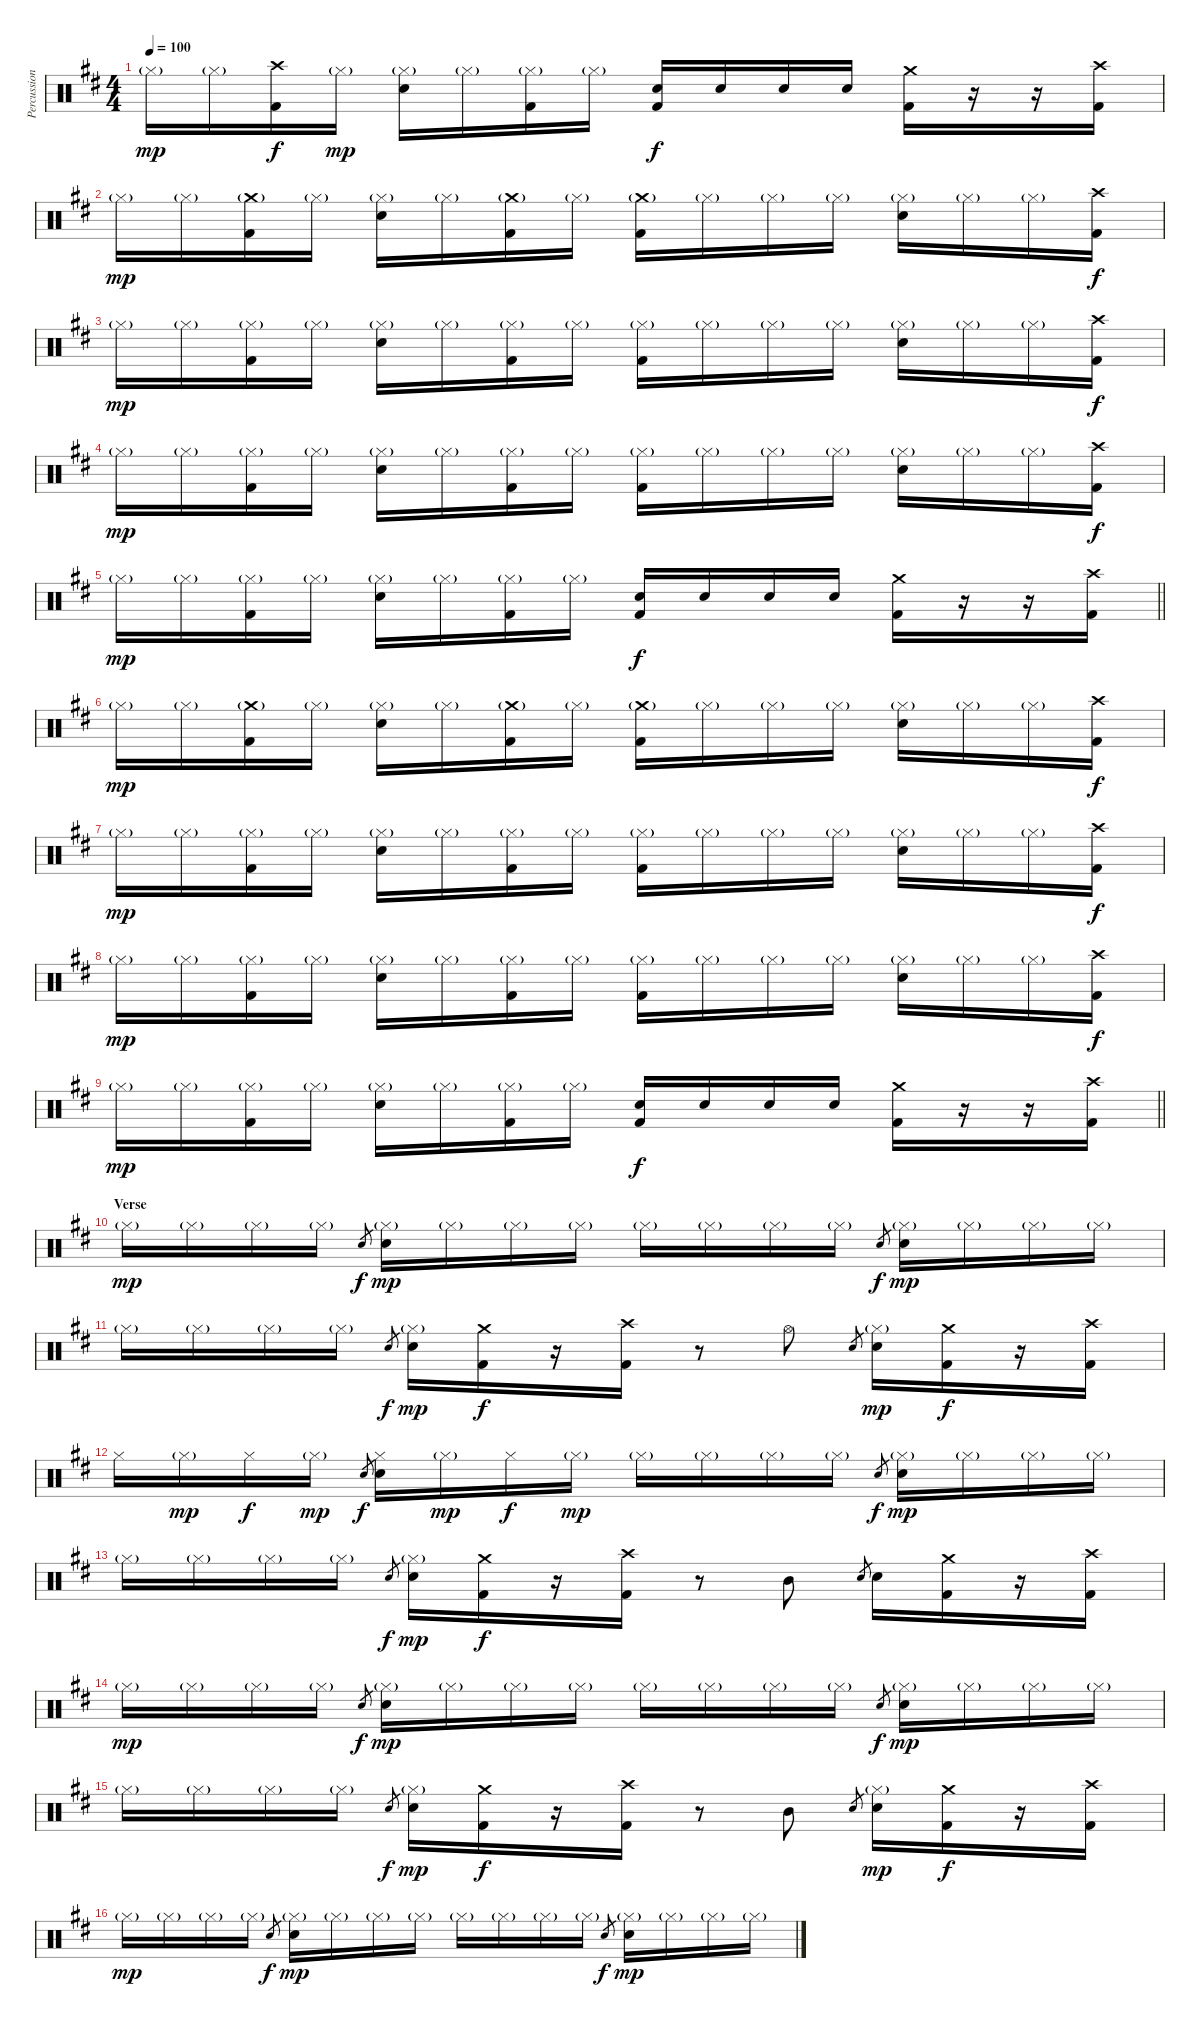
\track ("Percussion" "Percussion") {instrument percussion}
\staff {score}
\articulation defaults
\ts (4 4)
\tempo 100
\clef neutral
\ks bminor "Hi-Hat (closed)"{g}.16{dy mp} "Hi-Hat (closed)"{g}.16
("Crash high (hit)" "Kick (hit) 2").16{dy f} "Hi-Hat (closed)"{g}.16{dy mp} ("Hi-Hat (closed)"{g} "Snare (hit) 2").16 "Hi-Hat (closed)"{g}.16 ("Hi-Hat (closed)"{g} "Kick (hit) 2").16 "Hi-Hat (closed)"{g}.16 ("Snare (hit) 2" "Kick (hit) 2").16{dy f} "Snare (hit) 2".16 "Snare (hit) 2".16 "Snare (hit) 2".16 ("Crash medium (hit)" "Kick (hit) 2").16 r.16 r.16 ("Crash high (hit)" "Kick (hit) 2").16 |
"Hi-Hat (closed)"{g}.16{dy mp} "Hi-Hat (closed)"{g}.16 ("Crash medium (hit)"{g} "Kick (hit) 2").16 "Hi-Hat (closed)"{g}.16 ("Hi-Hat (closed)"{g} "Snare (hit) 2").16 "Hi-Hat (closed)"{g}.16 ("Crash medium (hit)"{g} "Kick (hit) 2").16 "Hi-Hat (closed)"{g}.16 ("Crash medium (hit)"{g} "Kick (hit) 2").16 "Hi-Hat (closed)"{g}.16 "Hi-Hat (closed)"{g}.16 "Hi-Hat (closed)"{g}.16 ("Hi-Hat (closed)"{g} "Snare (hit) 2").16 "Hi-Hat (closed)"{g}.16 "Hi-Hat (closed)"{g}.16 ("Crash high (hit)" "Kick (hit) 2").16{dy f} |
"Hi-Hat (closed)"{g}.16{dy mp} "Hi-Hat (closed)"{g}.16 ("Hi-Hat (closed)"{g} "Kick (hit) 2").16 "Hi-Hat (closed)"{g}.16 ("Hi-Hat (closed)"{g} "Snare (hit) 2").16 "Hi-Hat (closed)"{g}.16 ("Hi-Hat (closed)"{g} "Kick (hit) 2").16 "Hi-Hat (closed)"{g}.16 ("Hi-Hat (closed)"{g} "Kick (hit) 2").16 "Hi-Hat (closed)"{g}.16 "Hi-Hat (closed)"{g}.16 "Hi-Hat (closed)"{g}.16 ("Hi-Hat (closed)"{g} "Snare (hit) 2").16 "Hi-Hat (closed)"{g}.16 "Hi-Hat (closed)"{g}.16 ("Crash high (hit)" "Kick (hit) 2").16{dy f} |
"Hi-Hat (closed)"{g}.16{dy mp} "Hi-Hat (closed)"{g}.16 ("Hi-Hat (closed)"{g} "Kick (hit) 2").16 "Hi-Hat (closed)"{g}.16 ("Hi-Hat (closed)"{g} "Snare (hit) 2").16 "Hi-Hat (closed)"{g}.16 ("Hi-Hat (closed)"{g} "Kick (hit) 2").16 "Hi-Hat (closed)"{g}.16 ("Hi-Hat (closed)"{g} "Kick (hit) 2").16 "Hi-Hat (closed)"{g}.16 "Hi-Hat (closed)"{g}.16 "Hi-Hat (closed)"{g}.16 ("Hi-Hat (closed)"{g} "Snare (hit) 2").16 "Hi-Hat (closed)"{g}.16 "Hi-Hat (closed)"{g}.16 ("Crash high (hit)" "Kick (hit) 2").16{dy f} |
\barLineRight lightlight "Hi-Hat (closed)"{g}.16{dy mp} "Hi-Hat (closed)"{g}.16
("Hi-Hat (closed)"{g} "Kick (hit) 2").16 "Hi-Hat (closed)"{g}.16 ("Hi-Hat (closed)"{g} "Snare (hit) 2").16 "Hi-Hat (closed)"{g}.16 ("Hi-Hat (closed)"{g} "Kick (hit) 2").16 "Hi-Hat (closed)"{g}.16 ("Snare (hit) 2" "Kick (hit) 2").16{dy f} "Snare (hit) 2".16 "Snare (hit) 2".16 "Snare (hit) 2".16 ("Crash medium (hit)" "Kick (hit) 2").16 r.16 r.16 ("Crash high (hit)" "Kick (hit) 2").16 |
"Hi-Hat (closed)"{g}.16{dy mp} "Hi-Hat (closed)"{g}.16 ("Crash medium (hit)"{g} "Kick (hit) 2").16 "Hi-Hat (closed)"{g}.16 ("Hi-Hat (closed)"{g} "Snare (hit) 2").16 "Hi-Hat (closed)"{g}.16 ("Crash medium (hit)"{g} "Kick (hit) 2").16 "Hi-Hat (closed)"{g}.16 ("Crash medium (hit)"{g} "Kick (hit) 2").16 "Hi-Hat (closed)"{g}.16 "Hi-Hat (closed)"{g}.16 "Hi-Hat (closed)"{g}.16 ("Hi-Hat (closed)"{g} "Snare (hit) 2").16 "Hi-Hat (closed)"{g}.16 "Hi-Hat (closed)"{g}.16 ("Crash high (hit)" "Kick (hit) 2").16{dy f} |
"Hi-Hat (closed)"{g}.16{dy mp} "Hi-Hat (closed)"{g}.16 ("Hi-Hat (closed)"{g} "Kick (hit) 2").16 "Hi-Hat (closed)"{g}.16 ("Hi-Hat (closed)"{g} "Snare (hit) 2").16 "Hi-Hat (closed)"{g}.16 ("Hi-Hat (closed)"{g} "Kick (hit) 2").16 "Hi-Hat (closed)"{g}.16 ("Hi-Hat (closed)"{g} "Kick (hit) 2").16 "Hi-Hat (closed)"{g}.16 "Hi-Hat (closed)"{g}.16 "Hi-Hat (closed)"{g}.16 ("Hi-Hat (closed)"{g} "Snare (hit) 2").16 "Hi-Hat (closed)"{g}.16 "Hi-Hat (closed)"{g}.16 ("Crash high (hit)" "Kick (hit) 2").16{dy f} |
"Hi-Hat (closed)"{g}.16{dy mp} "Hi-Hat (closed)"{g}.16 ("Hi-Hat (closed)"{g} "Kick (hit) 2").16 "Hi-Hat (closed)"{g}.16 ("Hi-Hat (closed)"{g} "Snare (hit) 2").16 "Hi-Hat (closed)"{g}.16 ("Hi-Hat (closed)"{g} "Kick (hit) 2").16 "Hi-Hat (closed)"{g}.16 ("Hi-Hat (closed)"{g} "Kick (hit) 2").16 "Hi-Hat (closed)"{g}.16 "Hi-Hat (closed)"{g}.16 "Hi-Hat (closed)"{g}.16 ("Hi-Hat (closed)"{g} "Snare (hit) 2").16 "Hi-Hat (closed)"{g}.16 "Hi-Hat (closed)"{g}.16 ("Crash high (hit)" "Kick (hit) 2").16{dy f} |
\barLineRight lightlight "Hi-Hat (closed)"{g}.16{dy mp} "Hi-Hat (closed)"{g}.16
("Hi-Hat (closed)"{g} "Kick (hit) 2").16 "Hi-Hat (closed)"{g}.16 ("Hi-Hat (closed)"{g} "Snare (hit) 2").16 "Hi-Hat (closed)"{g}.16 ("Hi-Hat (closed)"{g} "Kick (hit) 2").16 "Hi-Hat (closed)"{g}.16 ("Snare (hit) 2" "Kick (hit) 2").16{dy f} "Snare (hit) 2".16 "Snare (hit) 2".16 "Snare (hit) 2".16 ("Crash medium (hit)" "Kick (hit) 2").16 r.16 r.16 ("Crash high (hit)" "Kick (hit) 2").16 |
\section ("" "Verse")
"Hi-Hat (closed)"{g}.16{dy mp} "Hi-Hat (closed)"{g}.16 "Hi-Hat (closed)"{g}.16 "Hi-Hat (closed)"{g}.16 "Snare (hit) 2"{x}.8{gr dy f} ("Hi-Hat (closed)"{g} "Snare (hit) 2").16{dy mp} "Hi-Hat (closed)"{g}.16 "Hi-Hat (closed)"{g}.16 "Hi-Hat (closed)"{g}.16 "Hi-Hat (closed)"{g}.16 "Hi-Hat (closed)"{g}.16 "Hi-Hat (closed)"{g}.16 "Hi-Hat (closed)"{g}.16 "Snare (hit) 2".8{gr dy f} ("Hi-Hat (closed)"{g} "Snare (hit) 2").16{dy mp} "Hi-Hat (closed)"{g}.16 "Hi-Hat (closed)"{g}.16 "Hi-Hat (closed)"{g}.16 |
"Hi-Hat (closed)"{g}.16 "Hi-Hat (closed)"{g}.16 "Hi-Hat (closed)"{g}.16 "Hi-Hat (closed)"{g}.16 "Snare (hit) 2"{x}.8{gr dy f} ("Hi-Hat (closed)"{g} "Snare (hit) 2").16{dy mp} ("Crash medium (hit)" "Kick (hit) 2").16{dy f} r.16 ("Crash high (hit)" "Kick (hit) 2").16 r.8 "Hi-Hat (open)".8 "Snare (hit) 2".8{gr} ("Hi-Hat (closed)"{g} "Snare (hit) 2").16{dy mp} ("Crash medium (hit)" "Kick (hit) 2").16{dy f} r.16 ("Crash high (hit)" "Kick (hit) 2").16 |
"Hi-Hat (closed)".16 "Hi-Hat (closed)"{g}.16{dy mp} "Hi-Hat (closed)".16{dy f} "Hi-Hat (closed)"{g}.16{dy mp} "Snare (hit) 2"{x}.8{gr dy f} ("Hi-Hat (closed)" "Snare (hit) 2").16 "Hi-Hat (closed)"{g}.16{dy mp} "Hi-Hat (closed)".16{dy f} "Hi-Hat (closed)"{g}.16{dy mp} "Hi-Hat (closed)"{g}.16 "Hi-Hat (closed)"{g}.16 "Hi-Hat (closed)"{g}.16 "Hi-Hat (closed)"{g}.16 "Snare (hit) 2".8{gr dy f} ("Hi-Hat (closed)"{g} "Snare (hit) 2").16{dy mp} "Hi-Hat (closed)"{g}.16 "Hi-Hat (closed)"{g}.16 "Hi-Hat (closed)"{g}.16 |
"Hi-Hat (closed)"{g}.16 "Hi-Hat (closed)"{g}.16 "Hi-Hat (closed)"{g}.16 "Hi-Hat (closed)"{g}.16 "Snare (hit) 2"{x}.8{gr dy f} ("Hi-Hat (closed)"{g} "Snare (hit) 2").16{dy mp} ("Crash medium (hit)" "Kick (hit) 2").16{dy f} r.16 ("Crash high (hit)" "Kick (hit) 2").16 r.8 "Mid Tom (hit)".8 "Snare (hit) 2".8{gr} "Snare (hit) 2".16 ("Crash medium (hit)" "Kick (hit) 2").16 r.16 ("Crash high (hit)" "Kick (hit) 2").16 |
"Hi-Hat (closed)"{g}.16{dy mp} "Hi-Hat (closed)"{g}.16 "Hi-Hat (closed)"{g}.16 "Hi-Hat (closed)"{g}.16 "Snare (hit) 2"{x}.8{gr dy f} ("Hi-Hat (closed)"{g} "Snare (hit) 2").16{dy mp} "Hi-Hat (closed)"{g}.16 "Hi-Hat (closed)"{g}.16 "Hi-Hat (closed)"{g}.16 "Hi-Hat (closed)"{g}.16 "Hi-Hat (closed)"{g}.16 "Hi-Hat (closed)"{g}.16 "Hi-Hat (closed)"{g}.16 "Snare (hit) 2".8{gr dy f} ("Hi-Hat (closed)"{g} "Snare (hit) 2").16{dy mp} "Hi-Hat (closed)"{g}.16 "Hi-Hat (closed)"{g}.16 "Hi-Hat (closed)"{g}.16 |
"Hi-Hat (closed)"{g}.16 "Hi-Hat (closed)"{g}.16 "Hi-Hat (closed)"{g}.16 "Hi-Hat (closed)"{g}.16 "Snare (hit) 2"{x}.8{gr dy f} ("Hi-Hat (closed)"{g} "Snare (hit) 2").16{dy mp} ("Crash medium (hit)" "Kick (hit) 2").16{dy f} r.16 ("Crash high (hit)" "Kick (hit) 2").16 r.8 "Mid Tom (hit)".8 "Snare (hit) 2".8{gr} ("Hi-Hat (closed)"{g} "Snare (hit) 2").16{dy mp} ("Crash medium (hit)" "Kick (hit) 2").16{dy f} r.16 ("Crash high (hit)" "Kick (hit) 2").16 |
"Hi-Hat (closed)"{g}.16{dy mp} "Hi-Hat (closed)"{g}.16 "Hi-Hat (closed)"{g}.16 "Hi-Hat (closed)"{g}.16 "Snare (hit) 2"{x}.8{gr dy f} ("Hi-Hat (closed)"{g} "Snare (hit) 2").16{dy mp} "Hi-Hat (closed)"{g}.16 "Hi-Hat (closed)"{g}.16 "Hi-Hat (closed)"{g}.16 "Hi-Hat (closed)"{g}.16 "Hi-Hat (closed)"{g}.16 "Hi-Hat (closed)"{g}.16 "Hi-Hat (closed)"{g}.16 "Snare (hit) 2".8{gr dy f} ("Hi-Hat (closed)"{g} "Snare (hit) 2").16{dy mp} "Hi-Hat (closed)"{g}.16 "Hi-Hat (closed)"{g}.16 "Hi-Hat (closed)"{g}.16
